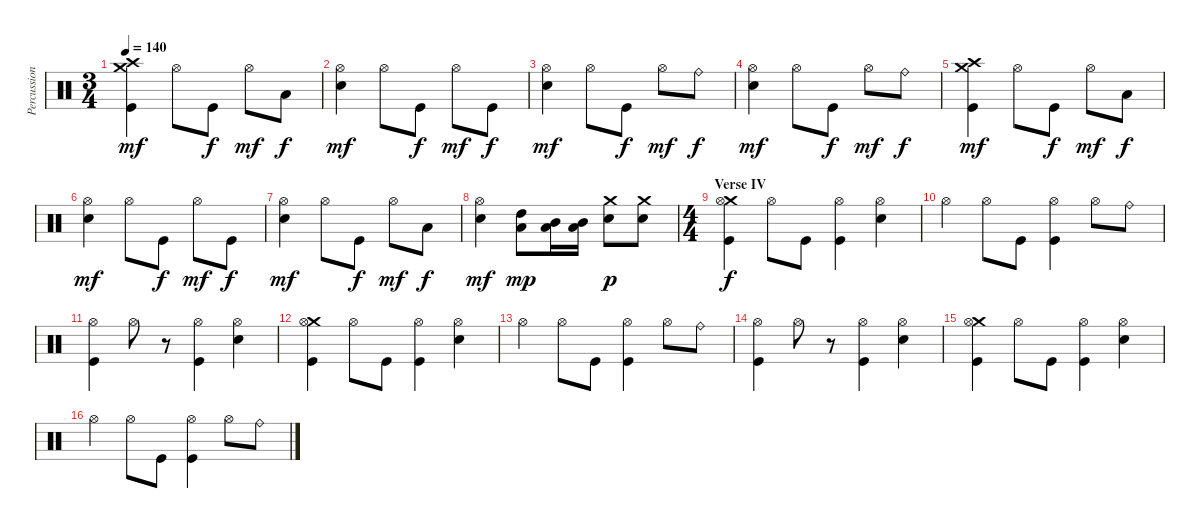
\track ("Percussion" "Percussion") {instrument percussion}
\staff {score}
\articulation defaults
\ts (3 4)
\tempo 140
\clef neutral
\ks c
("Kick (hit)" "Crash high (hit)" "Crash medium (hit)").4{dy mf} "Hi-Hat (open)".8 "Kick (hit)".8{dy f} "Hi-Hat (open)".8{dy mf} "Low Floor Tom (hit)".8{dy f} |
("Electric Snare (hit)" "Hi-Hat (open)").4{dy mf} "Hi-Hat (open)".8 "Kick (hit)".8{dy f} "Hi-Hat (open)".8{dy mf} "Kick (hit)".8{dy f} |
("Electric Snare (hit)" "Hi-Hat (open)").4{dy mf} "Hi-Hat (open)".8 "Kick (hit)".8{dy f} "Hi-Hat (open)".8{dy mf} "Ride (bell)".8{dy f} |
("Electric Snare (hit)" "Hi-Hat (open)").4{dy mf} "Hi-Hat (open)".8 "Kick (hit)".8{dy f} "Hi-Hat (open)".8{dy mf} "Ride (bell)".8{dy f} |
("Kick (hit)" "Crash high (hit)" "Crash medium (hit)").4{dy mf} "Hi-Hat (open)".8 "Kick (hit)".8{dy f} "Hi-Hat (open)".8{dy mf} "Low Floor Tom (hit)".8{dy f} |
("Electric Snare (hit)" "Hi-Hat (open)").4{dy mf} "Hi-Hat (open)".8 "Kick (hit)".8{dy f} "Hi-Hat (open)".8{dy mf} "Kick (hit)".8{dy f} |
("Electric Snare (hit)" "Hi-Hat (open)").4{dy mf} "Hi-Hat (open)".8 "Kick (hit)".8{dy f} "Hi-Hat (open)".8{dy mf} "Low Floor Tom (hit)".8{dy f} |
("Electric Snare (hit)" "Hi-Hat (open)").4{dy mf} ("Low Tom (hit)" "High Tom (hit)").8{dy mp} ("Low Tom (hit)" "Mid Tom (hit)").16 ("Low Tom (hit)" "Mid Tom (hit)").16 ("Electric Snare (hit)" "Crash medium (hit)").8{dy p} ("Electric Snare (hit)" "Crash medium (hit)").8 |
\ts (4 4)
\section ("" "Verse IV")
("Crash medium (hit)" "Hi-Hat (open)" "Kick (hit)").4{dy f} "Hi-Hat (open)".8 "Kick (hit)".8 ("Hi-Hat (open)" "Kick (hit)").4 ("Hi-Hat (open)" "Electric Snare (hit)").4 |
"Hi-Hat (open)".4 "Hi-Hat (open)".8 "Kick (hit)".8 ("Hi-Hat (open)" "Kick (hit)").4 "Hi-Hat (open)".8 "Ride (bell)".8 |
("Hi-Hat (open)" "Kick (hit)").4 "Hi-Hat (open)".8 r.8 ("Hi-Hat (open)" "Kick (hit)").4 ("Hi-Hat (open)" "Electric Snare (hit)").4 |
("Crash medium (hit)" "Hi-Hat (open)" "Kick (hit)").4 "Hi-Hat (open)".8 "Kick (hit)".8 ("Hi-Hat (open)" "Kick (hit)").4 ("Hi-Hat (open)" "Electric Snare (hit)").4 |
"Hi-Hat (open)".4 "Hi-Hat (open)".8 "Kick (hit)".8 ("Hi-Hat (open)" "Kick (hit)").4 "Hi-Hat (open)".8 "Ride (bell)".8 |
("Hi-Hat (open)" "Kick (hit)").4 "Hi-Hat (open)".8 r.8 ("Hi-Hat (open)" "Kick (hit)").4 ("Hi-Hat (open)" "Electric Snare (hit)").4 |
("Crash medium (hit)" "Hi-Hat (open)" "Kick (hit)").4 "Hi-Hat (open)".8 "Kick (hit)".8 ("Hi-Hat (open)" "Kick (hit)").4 ("Hi-Hat (open)" "Electric Snare (hit)").4 |
"Hi-Hat (open)".4 "Hi-Hat (open)".8 "Kick (hit)".8 ("Hi-Hat (open)" "Kick (hit)").4 "Hi-Hat (open)".8 "Ride (bell)".8
